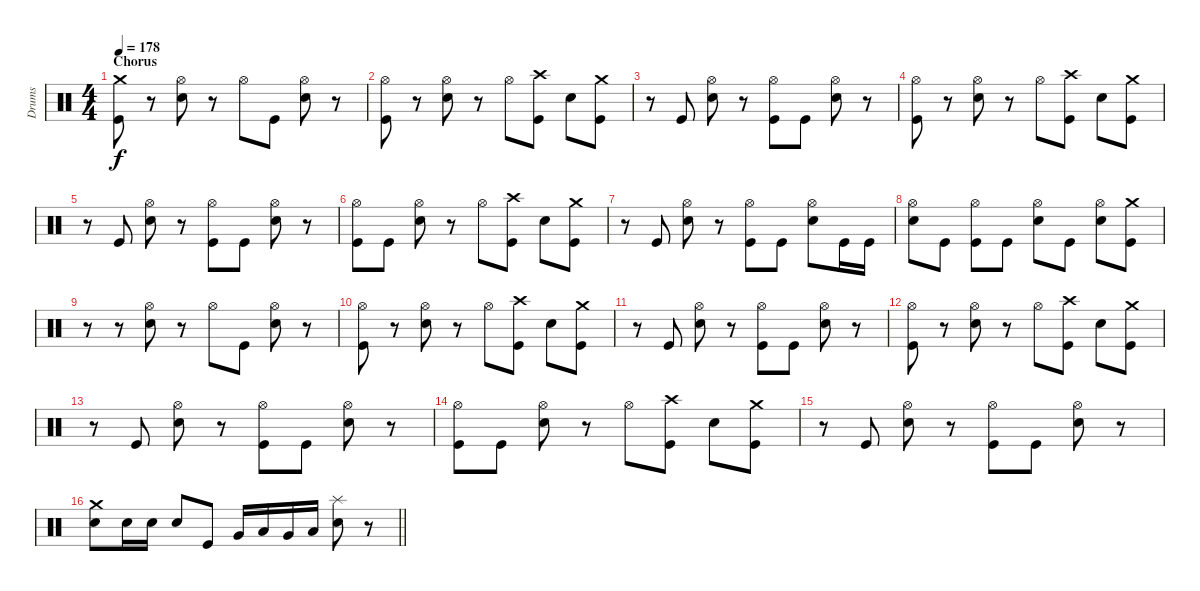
\track ("Drums" "Drums") {instrument percussion}
\staff {score}
\articulation defaults
\ts (4 4)
\section ("" "Chorus")
\tempo 178
\clef neutral
\ks c
("Crash medium (hit)" "Kick (hit)").8{dy f} r.8 ("Hi-Hat (open)" "Electric Snare (hit)").8 r.8 "Hi-Hat (open)".8 "Kick (hit)".8 ("Hi-Hat (open)" "Electric Snare (hit)").8 r.8 |
("Hi-Hat (open)" "Kick (hit)").8 r.8 ("Hi-Hat (open)" "Electric Snare (hit)").8 r.8 "Hi-Hat (open)".8 ("Crash high (hit)" "Kick (hit)").8 "Electric Snare (hit)".8 ("Crash medium (hit)" "Kick (hit)").8 |
r.8 "Kick (hit)".8 ("Hi-Hat (open)" "Electric Snare (hit)").8 r.8 ("Hi-Hat (open)" "Kick (hit)").8 "Kick (hit)".8 ("Hi-Hat (open)" "Electric Snare (hit)").8 r.8 |
("Hi-Hat (open)" "Kick (hit)").8 r.8 ("Hi-Hat (open)" "Electric Snare (hit)").8 r.8 "Hi-Hat (open)".8 ("Crash high (hit)" "Kick (hit)").8 "Electric Snare (hit)".8 ("Crash medium (hit)" "Kick (hit)").8 |
r.8 "Kick (hit)".8 ("Hi-Hat (open)" "Electric Snare (hit)").8 r.8 ("Hi-Hat (open)" "Kick (hit)").8 "Kick (hit)".8 ("Hi-Hat (open)" "Electric Snare (hit)").8 r.8 |
("Hi-Hat (open)" "Kick (hit)").8 "Kick (hit)".8 ("Hi-Hat (open)" "Electric Snare (hit)").8 r.8 "Hi-Hat (open)".8 ("Crash high (hit)" "Kick (hit)").8 "Electric Snare (hit)".8 ("Crash medium (hit)" "Kick (hit)").8 |
r.8 "Kick (hit)".8 ("Hi-Hat (open)" "Electric Snare (hit)").8 r.8 ("Hi-Hat (open)" "Kick (hit)").8 "Kick (hit)".8 ("Hi-Hat (open)" "Electric Snare (hit)").8 "Kick (hit)".16 "Kick (hit)".16 |
("Hi-Hat (open)" "Electric Snare (hit)").8 "Kick (hit)".8 ("Hi-Hat (open)" "Kick (hit)").8 "Kick (hit)".8 ("Hi-Hat (open)" "Electric Snare (hit)").8 "Kick (hit)".8 ("Hi-Hat (open)" "Electric Snare (hit)").8 ("Crash medium (hit)" "Kick (hit)").8 |
r.8 r.8 ("Hi-Hat (open)" "Electric Snare (hit)").8 r.8 "Hi-Hat (open)".8 "Kick (hit)".8 ("Hi-Hat (open)" "Electric Snare (hit)").8 r.8 |
("Hi-Hat (open)" "Kick (hit)").8 r.8 ("Hi-Hat (open)" "Electric Snare (hit)").8 r.8 "Hi-Hat (open)".8 ("Crash high (hit)" "Kick (hit)").8 "Electric Snare (hit)".8 ("Crash medium (hit)" "Kick (hit)").8 |
r.8 "Kick (hit)".8 ("Hi-Hat (open)" "Electric Snare (hit)").8 r.8 ("Hi-Hat (open)" "Kick (hit)").8 "Kick (hit)".8 ("Hi-Hat (open)" "Electric Snare (hit)").8 r.8 |
("Hi-Hat (open)" "Kick (hit)").8 r.8 ("Hi-Hat (open)" "Electric Snare (hit)").8 r.8 "Hi-Hat (open)".8 ("Crash high (hit)" "Kick (hit)").8 "Electric Snare (hit)".8 ("Crash medium (hit)" "Kick (hit)").8 |
r.8 "Kick (hit)".8 ("Hi-Hat (open)" "Electric Snare (hit)").8 r.8 ("Hi-Hat (open)" "Kick (hit)").8 "Kick (hit)".8 ("Hi-Hat (open)" "Electric Snare (hit)").8 r.8 |
("Hi-Hat (open)" "Kick (hit)").8 "Kick (hit)".8 ("Hi-Hat (open)" "Electric Snare (hit)").8 r.8 "Hi-Hat (open)".8 ("Crash high (hit)" "Kick (hit)").8 "Electric Snare (hit)".8 ("Crash medium (hit)" "Kick (hit)").8 |
r.8 "Kick (hit)".8 ("Hi-Hat (open)" "Electric Snare (hit)").8 r.8 ("Hi-Hat (open)" "Kick (hit)").8 "Kick (hit)".8 ("Hi-Hat (open)" "Electric Snare (hit)").8 r.8 |
\barLineRight lightlight
("Crash medium (hit)" "Electric Snare (hit)").8 "Electric Snare (hit)".16 "Electric Snare (hit)".16 "Electric Snare (hit)".8 "Kick (hit)".8 "Very Low Tom (hit)".16 "Low Tom (hit)".16 "Very Low Tom (hit)".16 "Low Tom (hit)".16 ("Splash (hit)" "Electric Snare (hit)").8 r.8
